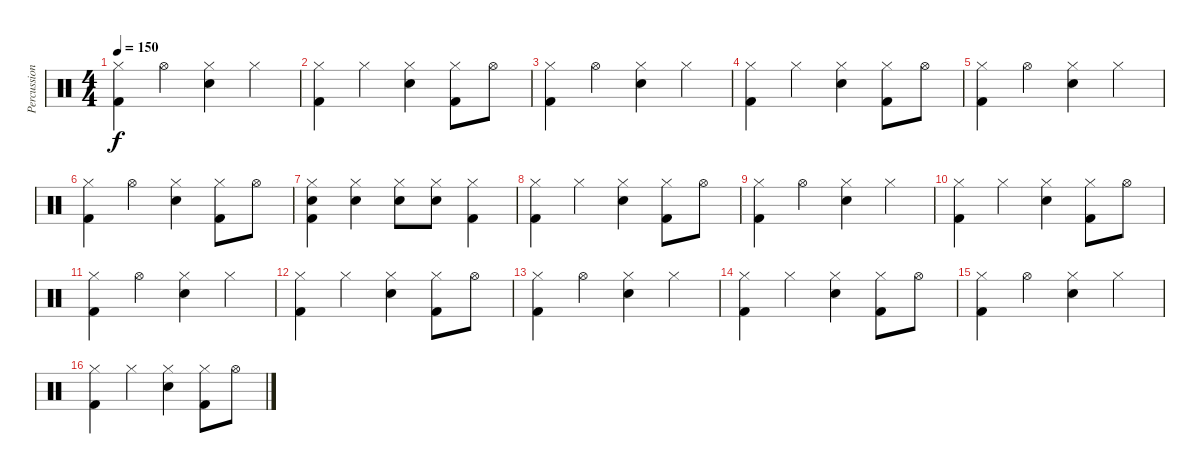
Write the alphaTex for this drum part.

\track ("Percussion" "Percussion") {instrument percussion}
\staff {score}
\articulation defaults
\ts (4 4)
\tempo 150
\clef neutral
\ks c
("Hi-Hat (closed)" "Kick (hit) 2").4{dy f} "Hi-Hat (open)".4 ("Hi-Hat (closed)" "Snare (hit) 2").4 "Hi-Hat (closed)".4 |
("Hi-Hat (closed)" "Kick (hit) 2").4 "Hi-Hat (closed)".4 ("Hi-Hat (closed)" "Snare (hit) 2").4 ("Hi-Hat (closed)" "Kick (hit) 2").8 "Hi-Hat (open)".8 |
("Hi-Hat (closed)" "Kick (hit) 2").4 "Hi-Hat (open)".4 ("Hi-Hat (closed)" "Snare (hit) 2").4 "Hi-Hat (closed)".4 |
("Hi-Hat (closed)" "Kick (hit) 2").4 "Hi-Hat (closed)".4 ("Hi-Hat (closed)" "Snare (hit) 2").4 ("Hi-Hat (closed)" "Kick (hit) 2").8 "Hi-Hat (open)".8 |
("Hi-Hat (closed)" "Kick (hit) 2").4 "Hi-Hat (open)".4 ("Hi-Hat (closed)" "Snare (hit) 2").4 "Hi-Hat (closed)".4 |
("Hi-Hat (closed)" "Kick (hit) 2").4 "Hi-Hat (open)".4 ("Hi-Hat (closed)" "Snare (hit) 2").4 ("Hi-Hat (closed)" "Kick (hit) 2").8 "Hi-Hat (open)".8 |
("Hi-Hat (closed)" "Snare (hit) 2" "Kick (hit) 2").4 ("Hi-Hat (closed)" "Snare (hit) 2").4 ("Hi-Hat (closed)" "Snare (hit) 2").8 ("Hi-Hat (closed)" "Snare (hit) 2").8 ("Hi-Hat (closed)" "Kick (hit) 2").4 |
("Hi-Hat (closed)" "Kick (hit) 2").4 "Hi-Hat (closed)".4 ("Hi-Hat (closed)" "Snare (hit) 2").4 ("Hi-Hat (closed)" "Kick (hit) 2").8 "Hi-Hat (open)".8 |
("Hi-Hat (closed)" "Kick (hit) 2").4 "Hi-Hat (open)".4 ("Hi-Hat (closed)" "Snare (hit) 2").4 "Hi-Hat (closed)".4 |
("Hi-Hat (closed)" "Kick (hit) 2").4 "Hi-Hat (closed)".4 ("Hi-Hat (closed)" "Snare (hit) 2").4 ("Hi-Hat (closed)" "Kick (hit) 2").8 "Hi-Hat (open)".8 |
("Hi-Hat (closed)" "Kick (hit) 2").4 "Hi-Hat (open)".4 ("Hi-Hat (closed)" "Snare (hit) 2").4 "Hi-Hat (closed)".4 |
("Hi-Hat (closed)" "Kick (hit) 2").4 "Hi-Hat (closed)".4 ("Hi-Hat (closed)" "Snare (hit) 2").4 ("Hi-Hat (closed)" "Kick (hit) 2").8 "Hi-Hat (open)".8 |
("Hi-Hat (closed)" "Kick (hit) 2").4 "Hi-Hat (open)".4 ("Hi-Hat (closed)" "Snare (hit) 2").4 "Hi-Hat (closed)".4 |
("Hi-Hat (closed)" "Kick (hit) 2").4 "Hi-Hat (closed)".4 ("Hi-Hat (closed)" "Snare (hit) 2").4 ("Hi-Hat (closed)" "Kick (hit) 2").8 "Hi-Hat (open)".8 |
("Hi-Hat (closed)" "Kick (hit) 2").4 "Hi-Hat (open)".4 ("Hi-Hat (closed)" "Snare (hit) 2").4 "Hi-Hat (closed)".4 |
("Hi-Hat (closed)" "Kick (hit) 2").4 "Hi-Hat (closed)".4 ("Hi-Hat (closed)" "Snare (hit) 2").4 ("Hi-Hat (closed)" "Kick (hit) 2").8 "Hi-Hat (open)".8
